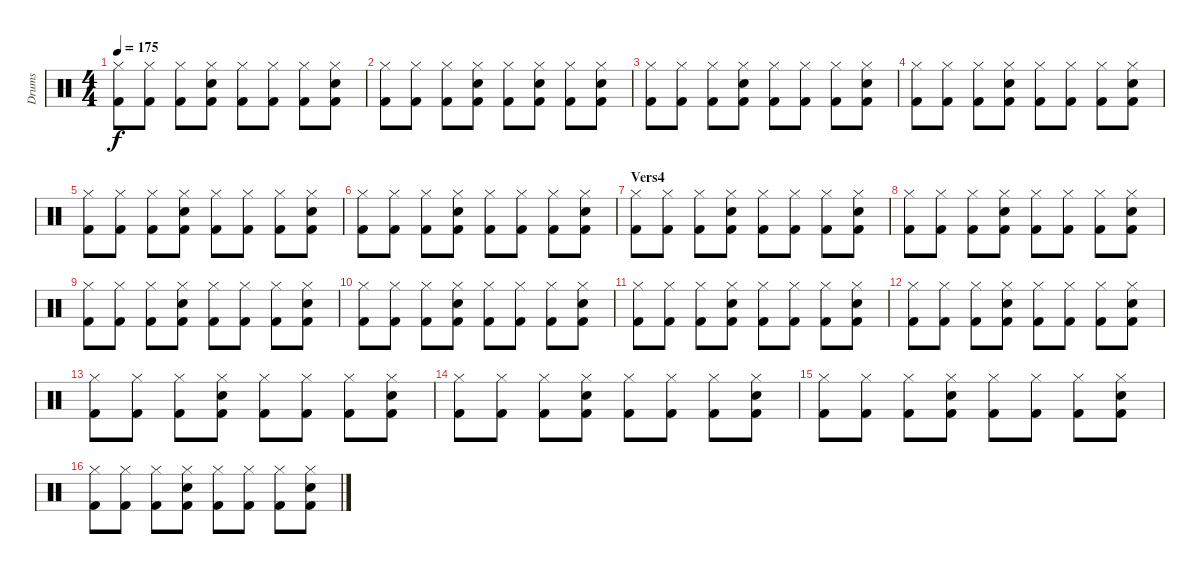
\track ("Drums" "Drums") {instrument percussion}
\staff {score}
\articulation defaults
\ts (4 4)
\tempo 175
\clef neutral
\ks c
("Kick (hit) 2" "Hi-Hat (closed)").8{dy f} ("Kick (hit) 2" "Hi-Hat (closed)").8 ("Kick (hit) 2" "Hi-Hat (closed)").8 ("Kick (hit) 2" "Hi-Hat (closed)" "Snare (hit) 2").8 ("Kick (hit) 2" "Hi-Hat (closed)").8 ("Kick (hit) 2" "Hi-Hat (closed)").8 ("Kick (hit) 2" "Hi-Hat (closed)").8 ("Kick (hit) 2" "Hi-Hat (closed)" "Snare (hit) 2").8 |
("Kick (hit) 2" "Hi-Hat (closed)").8 ("Kick (hit) 2" "Hi-Hat (closed)").8 ("Kick (hit) 2" "Hi-Hat (closed)").8 ("Kick (hit) 2" "Hi-Hat (closed)" "Snare (hit) 2").8 ("Kick (hit) 2" "Hi-Hat (closed)").8 ("Kick (hit) 2" "Hi-Hat (closed)" "Snare (hit) 2").8 ("Kick (hit) 2" "Hi-Hat (closed)").8 ("Kick (hit) 2" "Hi-Hat (closed)" "Snare (hit) 2").8 |
("Kick (hit) 2" "Hi-Hat (closed)").8 ("Kick (hit) 2" "Hi-Hat (closed)").8 ("Kick (hit) 2" "Hi-Hat (closed)").8 ("Kick (hit) 2" "Hi-Hat (closed)" "Snare (hit) 2").8 ("Kick (hit) 2" "Hi-Hat (closed)").8 ("Kick (hit) 2" "Hi-Hat (closed)").8 ("Kick (hit) 2" "Hi-Hat (closed)").8 ("Kick (hit) 2" "Hi-Hat (closed)" "Snare (hit) 2").8 |
("Kick (hit) 2" "Hi-Hat (closed)").8 ("Kick (hit) 2" "Hi-Hat (closed)").8 ("Kick (hit) 2" "Hi-Hat (closed)").8 ("Kick (hit) 2" "Hi-Hat (closed)" "Snare (hit) 2").8 ("Kick (hit) 2" "Hi-Hat (closed)").8 ("Kick (hit) 2" "Hi-Hat (closed)").8 ("Kick (hit) 2" "Hi-Hat (closed)").8 ("Kick (hit) 2" "Hi-Hat (closed)" "Snare (hit) 2").8 |
("Kick (hit) 2" "Hi-Hat (closed)").8 ("Kick (hit) 2" "Hi-Hat (closed)").8 ("Kick (hit) 2" "Hi-Hat (closed)").8 ("Kick (hit) 2" "Hi-Hat (closed)" "Snare (hit) 2").8 ("Kick (hit) 2" "Hi-Hat (closed)").8 ("Kick (hit) 2" "Hi-Hat (closed)").8 ("Kick (hit) 2" "Hi-Hat (closed)").8 ("Kick (hit) 2" "Hi-Hat (closed)" "Snare (hit) 2").8 |
("Kick (hit) 2" "Hi-Hat (closed)").8 ("Kick (hit) 2" "Hi-Hat (closed)").8 ("Kick (hit) 2" "Hi-Hat (closed)").8 ("Kick (hit) 2" "Hi-Hat (closed)" "Snare (hit) 2").8 ("Kick (hit) 2" "Hi-Hat (closed)").8 ("Kick (hit) 2" "Hi-Hat (closed)").8 ("Kick (hit) 2" "Hi-Hat (closed)").8 ("Kick (hit) 2" "Hi-Hat (closed)" "Snare (hit) 2").8 |
\section ("" "Vers4")
("Kick (hit) 2" "Hi-Hat (closed)").8 ("Kick (hit) 2" "Hi-Hat (closed)").8 ("Kick (hit) 2" "Hi-Hat (closed)").8 ("Kick (hit) 2" "Hi-Hat (closed)" "Snare (hit) 2").8 ("Kick (hit) 2" "Hi-Hat (closed)").8 ("Kick (hit) 2" "Hi-Hat (closed)").8 ("Kick (hit) 2" "Hi-Hat (closed)").8 ("Kick (hit) 2" "Hi-Hat (closed)" "Snare (hit) 2").8 |
("Kick (hit) 2" "Hi-Hat (closed)").8 ("Kick (hit) 2" "Hi-Hat (closed)").8 ("Kick (hit) 2" "Hi-Hat (closed)").8 ("Kick (hit) 2" "Hi-Hat (closed)" "Snare (hit) 2").8 ("Kick (hit) 2" "Hi-Hat (closed)").8 ("Kick (hit) 2" "Hi-Hat (closed)").8 ("Kick (hit) 2" "Hi-Hat (closed)").8 ("Kick (hit) 2" "Hi-Hat (closed)" "Snare (hit) 2").8 |
("Kick (hit) 2" "Hi-Hat (closed)").8 ("Kick (hit) 2" "Hi-Hat (closed)").8 ("Kick (hit) 2" "Hi-Hat (closed)").8 ("Kick (hit) 2" "Hi-Hat (closed)" "Snare (hit) 2").8 ("Kick (hit) 2" "Hi-Hat (closed)").8 ("Kick (hit) 2" "Hi-Hat (closed)").8 ("Kick (hit) 2" "Hi-Hat (closed)").8 ("Kick (hit) 2" "Hi-Hat (closed)" "Snare (hit) 2").8 |
("Kick (hit) 2" "Hi-Hat (closed)").8 ("Kick (hit) 2" "Hi-Hat (closed)").8 ("Kick (hit) 2" "Hi-Hat (closed)").8 ("Kick (hit) 2" "Hi-Hat (closed)" "Snare (hit) 2").8 ("Kick (hit) 2" "Hi-Hat (closed)").8 ("Kick (hit) 2" "Hi-Hat (closed)").8 ("Kick (hit) 2" "Hi-Hat (closed)").8 ("Kick (hit) 2" "Hi-Hat (closed)" "Snare (hit) 2").8 |
("Kick (hit) 2" "Hi-Hat (closed)").8 ("Kick (hit) 2" "Hi-Hat (closed)").8 ("Kick (hit) 2" "Hi-Hat (closed)").8 ("Kick (hit) 2" "Hi-Hat (closed)" "Snare (hit) 2").8 ("Kick (hit) 2" "Hi-Hat (closed)").8 ("Kick (hit) 2" "Hi-Hat (closed)").8 ("Kick (hit) 2" "Hi-Hat (closed)").8 ("Kick (hit) 2" "Hi-Hat (closed)" "Snare (hit) 2").8 |
("Kick (hit) 2" "Hi-Hat (closed)").8 ("Kick (hit) 2" "Hi-Hat (closed)").8 ("Kick (hit) 2" "Hi-Hat (closed)").8 ("Kick (hit) 2" "Hi-Hat (closed)" "Snare (hit) 2").8 ("Kick (hit) 2" "Hi-Hat (closed)").8 ("Kick (hit) 2" "Hi-Hat (closed)").8 ("Kick (hit) 2" "Hi-Hat (closed)").8 ("Kick (hit) 2" "Hi-Hat (closed)" "Snare (hit) 2").8 |
("Kick (hit) 2" "Hi-Hat (closed)").8 ("Kick (hit) 2" "Hi-Hat (closed)").8 ("Kick (hit) 2" "Hi-Hat (closed)").8 ("Kick (hit) 2" "Hi-Hat (closed)" "Snare (hit) 2").8 ("Kick (hit) 2" "Hi-Hat (closed)").8 ("Kick (hit) 2" "Hi-Hat (closed)").8 ("Kick (hit) 2" "Hi-Hat (closed)").8 ("Kick (hit) 2" "Hi-Hat (closed)" "Snare (hit) 2").8 |
("Kick (hit) 2" "Hi-Hat (closed)").8 ("Kick (hit) 2" "Hi-Hat (closed)").8 ("Kick (hit) 2" "Hi-Hat (closed)").8 ("Kick (hit) 2" "Hi-Hat (closed)" "Snare (hit) 2").8 ("Kick (hit) 2" "Hi-Hat (closed)").8 ("Kick (hit) 2" "Hi-Hat (closed)").8 ("Kick (hit) 2" "Hi-Hat (closed)").8 ("Kick (hit) 2" "Hi-Hat (closed)" "Snare (hit) 2").8 |
("Kick (hit) 2" "Hi-Hat (closed)").8 ("Kick (hit) 2" "Hi-Hat (closed)").8 ("Kick (hit) 2" "Hi-Hat (closed)").8 ("Kick (hit) 2" "Hi-Hat (closed)" "Snare (hit) 2").8 ("Kick (hit) 2" "Hi-Hat (closed)").8 ("Kick (hit) 2" "Hi-Hat (closed)").8 ("Kick (hit) 2" "Hi-Hat (closed)").8 ("Kick (hit) 2" "Hi-Hat (closed)" "Snare (hit) 2").8 |
("Kick (hit) 2" "Hi-Hat (closed)").8 ("Kick (hit) 2" "Hi-Hat (closed)").8 ("Kick (hit) 2" "Hi-Hat (closed)").8 ("Kick (hit) 2" "Hi-Hat (closed)" "Snare (hit) 2").8 ("Kick (hit) 2" "Hi-Hat (closed)").8 ("Kick (hit) 2" "Hi-Hat (closed)").8 ("Kick (hit) 2" "Hi-Hat (closed)").8 ("Kick (hit) 2" "Hi-Hat (closed)" "Snare (hit) 2").8
